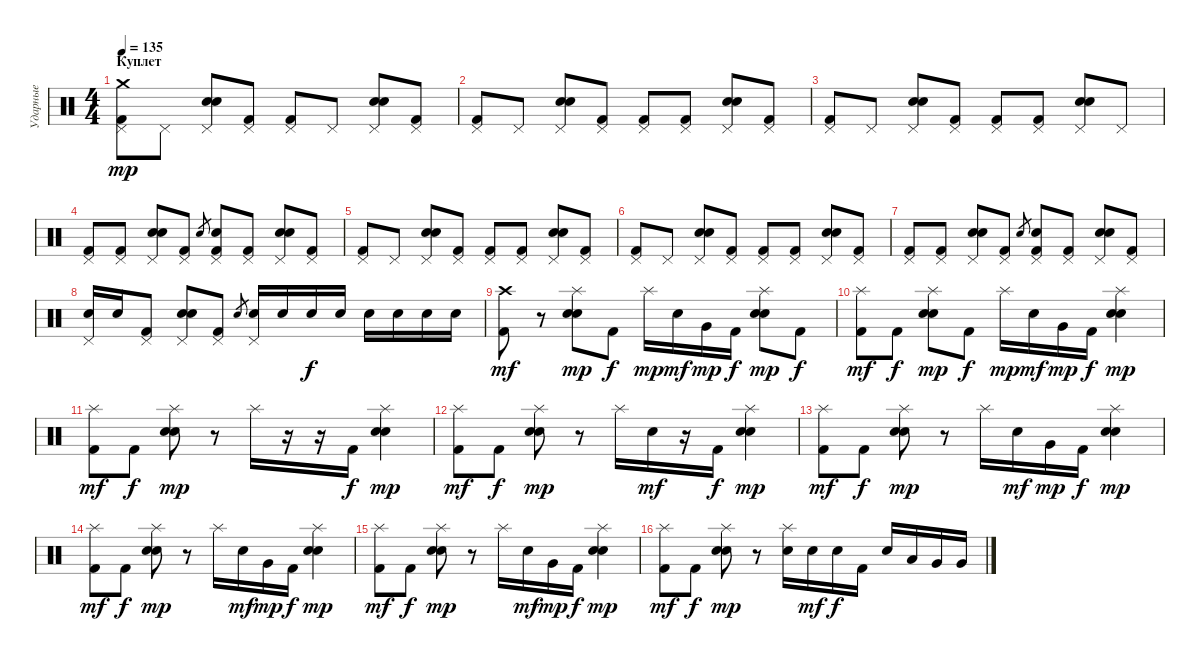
\track ("Ударные" "Ударные") {instrument percussion}
\staff {score}
\articulation defaults
\ts (4 4)
\section ("" "Куплет")
\tempo 135
\clef neutral
\ks c
("Crash medium (hit)" "Pedal Hi-Hat (hit)" "Kick (hit) 2").8{dy mp} "Pedal Hi-Hat (hit)".8 ("Pedal Hi-Hat (hit)" "Electric Snare (hit)" "Snare (hit) 2").8 ("Pedal Hi-Hat (hit)" "Kick (hit) 2").8 ("Pedal Hi-Hat (hit)" "Kick (hit) 2").8 "Pedal Hi-Hat (hit)".8 ("Pedal Hi-Hat (hit)" "Electric Snare (hit)" "Snare (hit) 2").8 ("Pedal Hi-Hat (hit)" "Kick (hit) 2").8 |
("Pedal Hi-Hat (hit)" "Kick (hit) 2").8 "Pedal Hi-Hat (hit)".8 ("Pedal Hi-Hat (hit)" "Electric Snare (hit)" "Snare (hit) 2").8 ("Pedal Hi-Hat (hit)" "Kick (hit) 2").8 ("Pedal Hi-Hat (hit)" "Kick (hit) 2").8 ("Pedal Hi-Hat (hit)" "Kick (hit) 2").8 ("Pedal Hi-Hat (hit)" "Electric Snare (hit)" "Snare (hit) 2").8 ("Pedal Hi-Hat (hit)" "Kick (hit) 2").8 |
("Pedal Hi-Hat (hit)" "Kick (hit) 2").8 "Pedal Hi-Hat (hit)".8 ("Pedal Hi-Hat (hit)" "Electric Snare (hit)" "Snare (hit) 2").8 ("Pedal Hi-Hat (hit)" "Kick (hit) 2").8 ("Pedal Hi-Hat (hit)" "Kick (hit) 2").8 ("Pedal Hi-Hat (hit)" "Kick (hit) 2").8 ("Pedal Hi-Hat (hit)" "Electric Snare (hit)" "Snare (hit) 2").8 "Pedal Hi-Hat (hit)".8 |
("Pedal Hi-Hat (hit)" "Kick (hit) 2").8 ("Pedal Hi-Hat (hit)" "Kick (hit) 2").8 ("Pedal Hi-Hat (hit)" "Electric Snare (hit)" "Snare (hit) 2").8 ("Pedal Hi-Hat (hit)" "Kick (hit) 2").8 "Electric Snare (hit)".8{gr} ("Pedal Hi-Hat (hit)" "Electric Snare (hit)" "Kick (hit) 2").8 ("Pedal Hi-Hat (hit)" "Kick (hit) 2").8 ("Pedal Hi-Hat (hit)" "Electric Snare (hit)" "Snare (hit) 2").8 ("Pedal Hi-Hat (hit)" "Kick (hit) 2").8 |
("Pedal Hi-Hat (hit)" "Kick (hit) 2").8 "Pedal Hi-Hat (hit)".8 ("Pedal Hi-Hat (hit)" "Electric Snare (hit)" "Snare (hit) 2").8 ("Pedal Hi-Hat (hit)" "Kick (hit) 2").8 ("Pedal Hi-Hat (hit)" "Kick (hit) 2").8 ("Pedal Hi-Hat (hit)" "Kick (hit) 2").8 ("Pedal Hi-Hat (hit)" "Electric Snare (hit)" "Snare (hit) 2").8 ("Pedal Hi-Hat (hit)" "Kick (hit) 2").8 |
("Pedal Hi-Hat (hit)" "Kick (hit) 2").8 "Pedal Hi-Hat (hit)".8 ("Pedal Hi-Hat (hit)" "Electric Snare (hit)" "Snare (hit) 2").8 ("Pedal Hi-Hat (hit)" "Kick (hit) 2").8 ("Pedal Hi-Hat (hit)" "Kick (hit) 2").8 ("Pedal Hi-Hat (hit)" "Kick (hit) 2").8 ("Pedal Hi-Hat (hit)" "Electric Snare (hit)" "Snare (hit) 2").8 ("Pedal Hi-Hat (hit)" "Kick (hit) 2").8 |
("Pedal Hi-Hat (hit)" "Kick (hit) 2").8 ("Pedal Hi-Hat (hit)" "Kick (hit) 2").8 ("Pedal Hi-Hat (hit)" "Electric Snare (hit)" "Snare (hit) 2").8 ("Pedal Hi-Hat (hit)" "Kick (hit) 2").8 "Electric Snare (hit)".8{gr} ("Pedal Hi-Hat (hit)" "Electric Snare (hit)" "Kick (hit) 2").8 ("Pedal Hi-Hat (hit)" "Kick (hit) 2").8 ("Pedal Hi-Hat (hit)" "Electric Snare (hit)" "Snare (hit) 2").8 ("Pedal Hi-Hat (hit)" "Kick (hit) 2").8 |
("Pedal Hi-Hat (hit)" "Electric Snare (hit)").16 "Electric Snare (hit)".16 ("Pedal Hi-Hat (hit)" "Kick (hit) 2").8 ("Pedal Hi-Hat (hit)" "Electric Snare (hit)" "Snare (hit) 2").8 ("Pedal Hi-Hat (hit)" "Kick (hit) 2").8 "Electric Snare (hit)".8{gr} ("Pedal Hi-Hat (hit)" "Electric Snare (hit)").16 "Electric Snare (hit)".16 "Electric Snare (hit)".16{dy f} "Electric Snare (hit)".16 "Electric Snare (hit)".16 "Electric Snare (hit)".16 "Electric Snare (hit)".16 "Electric Snare (hit)".16 |
("Crash high (hit)" "Kick (hit) 2").8{dy mf} r.8 ("Splash (hit)" "Electric Snare (hit)" "Snare (hit) 2").8{dy mp} "Kick (hit) 2".8{dy f} "Splash (hit)".16{dy mp} "Electric Snare (hit)".16{dy mf} "Very Low Tom (hit)".16{dy mp} "Kick (hit) 2".16{dy f} ("Splash (hit)" "Electric Snare (hit)" "Snare (hit) 2").8{dy mp} "Kick (hit) 2".8{dy f} |
("Splash (hit)" "Kick (hit) 2").8{dy mf} "Kick (hit) 2".8{dy f} ("Splash (hit)" "Electric Snare (hit)" "Snare (hit) 2").8{dy mp} "Kick (hit) 2".8{dy f} "Splash (hit)".16{dy mp} "Electric Snare (hit)".16{dy mf} "Very Low Tom (hit)".16{dy mp} "Kick (hit) 2".16{dy f} ("Splash (hit)" "Electric Snare (hit)" "Snare (hit) 2").4{dy mp} |
("Splash (hit)" "Kick (hit) 2").8{dy mf} "Kick (hit) 2".8{dy f} ("Splash (hit)" "Electric Snare (hit)" "Snare (hit) 2").8{dy mp} r.8 "Splash (hit)".16 r.16 r.16 "Kick (hit) 2".16{dy f} ("Splash (hit)" "Electric Snare (hit)" "Snare (hit) 2").4{dy mp} |
("Splash (hit)" "Kick (hit) 2").8{dy mf} "Kick (hit) 2".8{dy f} ("Splash (hit)" "Electric Snare (hit)" "Snare (hit) 2").8{dy mp} r.8 "Splash (hit)".16 "Electric Snare (hit)".16{dy mf} r.16 "Kick (hit) 2".16{dy f} ("Splash (hit)" "Electric Snare (hit)" "Snare (hit) 2").4{dy mp} |
("Splash (hit)" "Kick (hit) 2").8{dy mf} "Kick (hit) 2".8{dy f} ("Splash (hit)" "Electric Snare (hit)" "Snare (hit) 2").8{dy mp} r.8 "Splash (hit)".16 "Electric Snare (hit)".16{dy mf} "Very Low Tom (hit)".16{dy mp} "Kick (hit) 2".16{dy f} ("Splash (hit)" "Electric Snare (hit)" "Snare (hit) 2").4{dy mp} |
("Splash (hit)" "Kick (hit) 2").8{dy mf} "Kick (hit) 2".8{dy f} ("Splash (hit)" "Electric Snare (hit)" "Snare (hit) 2").8{dy mp} r.8 "Splash (hit)".16 "Electric Snare (hit)".16{dy mf} "Very Low Tom (hit)".16{dy mp} "Kick (hit) 2".16{dy f} ("Splash (hit)" "Electric Snare (hit)" "Snare (hit) 2").4{dy mp} |
("Splash (hit)" "Kick (hit) 2").8{dy mf} "Kick (hit) 2".8{dy f} ("Splash (hit)" "Electric Snare (hit)" "Snare (hit) 2").8{dy mp} r.8 "Splash (hit)".16 "Electric Snare (hit)".16{dy mf} "Very Low Tom (hit)".16{dy mp} "Kick (hit) 2".16{dy f} ("Splash (hit)" "Electric Snare (hit)" "Snare (hit) 2").4{dy mp} |
("Splash (hit)" "Kick (hit) 2").8{dy mf} "Kick (hit) 2".8{dy f} ("Splash (hit)" "Electric Snare (hit)" "Snare (hit) 2").8{dy mp} r.8 ("Splash (hit)" "Electric Snare (hit)").16 "Electric Snare (hit)".16{dy mf} "Electric Snare (hit)".16{dy f} "Kick (hit) 2".16 "Electric Snare (hit)".16 "Low Tom (hit)".16 "Very Low Tom (hit)".16 "Very Low Tom (hit)".16
